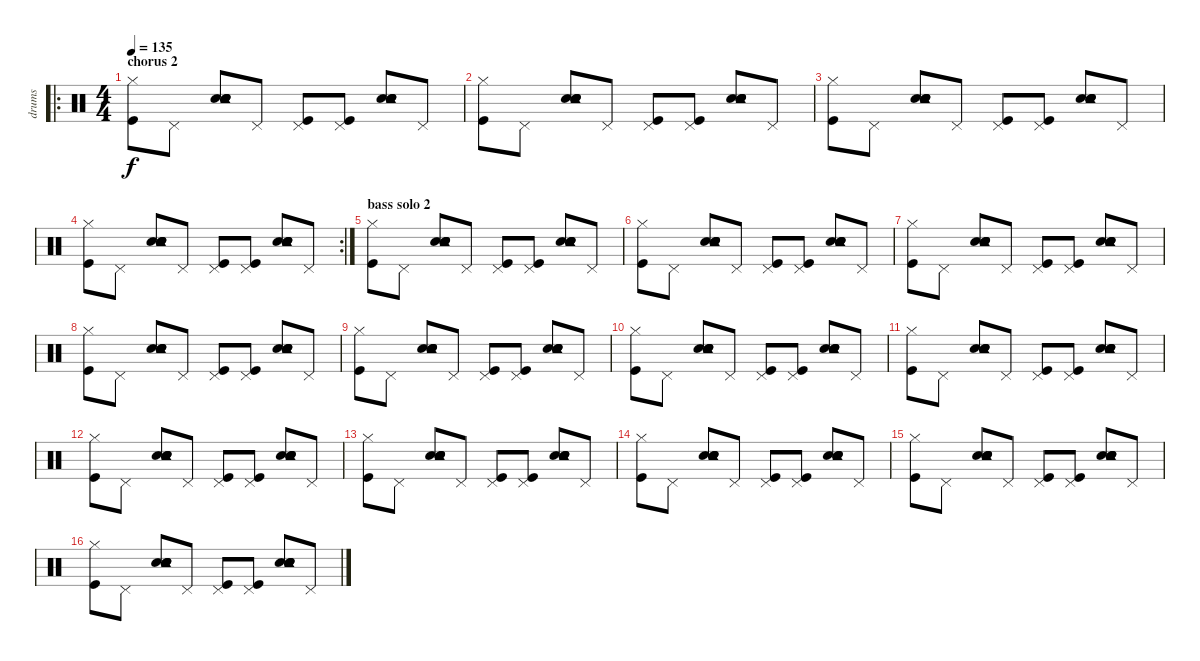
\track ("drums" "drums") {instrument percussion}
\staff {score}
\articulation defaults
\ro
\ts (4 4)
\section ("" "chorus 2")
\tempo 135
\clef neutral
\ks c
("Kick (hit)" "Hi-Hat (closed)").8{dy f} "Pedal Hi-Hat (hit)".8 ("Snare (hit) 2" "Snare (hit) 2" "Electric Snare (hit)" "Electric Snare (hit)" "Tambourine (hit)").8 "Pedal Hi-Hat (hit)".8 ("Kick (hit)" "Pedal Hi-Hat (hit)").8 ("Kick (hit)" "Pedal Hi-Hat (hit)").8 ("Snare (hit) 2" "Snare (hit) 2" "Electric Snare (hit)" "Electric Snare (hit)" "Tambourine (hit)").8 "Pedal Hi-Hat (hit)".8 |
("Kick (hit)" "Hi-Hat (closed)").8 "Pedal Hi-Hat (hit)".8 ("Snare (hit) 2" "Snare (hit) 2" "Electric Snare (hit)" "Electric Snare (hit)" "Tambourine (hit)").8 "Pedal Hi-Hat (hit)".8 ("Kick (hit)" "Pedal Hi-Hat (hit)").8 ("Kick (hit)" "Pedal Hi-Hat (hit)").8 ("Snare (hit) 2" "Snare (hit) 2" "Electric Snare (hit)" "Electric Snare (hit)" "Tambourine (hit)").8 "Pedal Hi-Hat (hit)".8 |
("Kick (hit)" "Hi-Hat (closed)").8 "Pedal Hi-Hat (hit)".8 ("Snare (hit) 2" "Snare (hit) 2" "Electric Snare (hit)" "Electric Snare (hit)" "Tambourine (hit)").8 "Pedal Hi-Hat (hit)".8 ("Kick (hit)" "Pedal Hi-Hat (hit)").8 ("Kick (hit)" "Pedal Hi-Hat (hit)").8 ("Snare (hit) 2" "Snare (hit) 2" "Electric Snare (hit)" "Electric Snare (hit)" "Tambourine (hit)").8 "Pedal Hi-Hat (hit)".8 |
\rc 2
("Kick (hit)" "Hi-Hat (closed)").8 "Pedal Hi-Hat (hit)".8 ("Snare (hit) 2" "Snare (hit) 2" "Electric Snare (hit)" "Electric Snare (hit)" "Tambourine (hit)").8 "Pedal Hi-Hat (hit)".8 ("Kick (hit)" "Pedal Hi-Hat (hit)").8 ("Kick (hit)" "Pedal Hi-Hat (hit)").8 ("Snare (hit) 2" "Snare (hit) 2" "Electric Snare (hit)" "Electric Snare (hit)" "Tambourine (hit)").8 "Pedal Hi-Hat (hit)".8 |
\section ("" "bass solo 2")
("Kick (hit)" "Hi-Hat (closed)").8 "Pedal Hi-Hat (hit)".8 ("Snare (hit) 2" "Snare (hit) 2" "Electric Snare (hit)" "Electric Snare (hit)" "Tambourine (hit)").8 "Pedal Hi-Hat (hit)".8 ("Kick (hit)" "Pedal Hi-Hat (hit)").8 ("Kick (hit)" "Pedal Hi-Hat (hit)").8 ("Snare (hit) 2" "Snare (hit) 2" "Electric Snare (hit)" "Electric Snare (hit)" "Tambourine (hit)").8 "Pedal Hi-Hat (hit)".8 |
("Kick (hit)" "Hi-Hat (closed)").8 "Pedal Hi-Hat (hit)".8 ("Snare (hit) 2" "Snare (hit) 2" "Electric Snare (hit)" "Electric Snare (hit)" "Tambourine (hit)").8 "Pedal Hi-Hat (hit)".8 ("Kick (hit)" "Pedal Hi-Hat (hit)").8 ("Kick (hit)" "Pedal Hi-Hat (hit)").8 ("Snare (hit) 2" "Snare (hit) 2" "Electric Snare (hit)" "Electric Snare (hit)" "Tambourine (hit)").8 "Pedal Hi-Hat (hit)".8 |
("Kick (hit)" "Hi-Hat (closed)").8 "Pedal Hi-Hat (hit)".8 ("Snare (hit) 2" "Snare (hit) 2" "Electric Snare (hit)" "Electric Snare (hit)" "Tambourine (hit)").8 "Pedal Hi-Hat (hit)".8 ("Kick (hit)" "Pedal Hi-Hat (hit)").8 ("Kick (hit)" "Pedal Hi-Hat (hit)").8 ("Snare (hit) 2" "Snare (hit) 2" "Electric Snare (hit)" "Electric Snare (hit)" "Tambourine (hit)").8 "Pedal Hi-Hat (hit)".8 |
("Kick (hit)" "Hi-Hat (closed)").8 "Pedal Hi-Hat (hit)".8 ("Snare (hit) 2" "Snare (hit) 2" "Electric Snare (hit)" "Electric Snare (hit)" "Tambourine (hit)").8 "Pedal Hi-Hat (hit)".8 ("Kick (hit)" "Pedal Hi-Hat (hit)").8 ("Kick (hit)" "Pedal Hi-Hat (hit)").8 ("Snare (hit) 2" "Snare (hit) 2" "Electric Snare (hit)" "Electric Snare (hit)" "Tambourine (hit)").8 "Pedal Hi-Hat (hit)".8 |
("Kick (hit)" "Hi-Hat (closed)").8 "Pedal Hi-Hat (hit)".8 ("Snare (hit) 2" "Snare (hit) 2" "Electric Snare (hit)" "Electric Snare (hit)" "Tambourine (hit)").8 "Pedal Hi-Hat (hit)".8 ("Kick (hit)" "Pedal Hi-Hat (hit)").8 ("Kick (hit)" "Pedal Hi-Hat (hit)").8 ("Snare (hit) 2" "Snare (hit) 2" "Electric Snare (hit)" "Electric Snare (hit)" "Tambourine (hit)").8 "Pedal Hi-Hat (hit)".8 |
("Kick (hit)" "Hi-Hat (closed)").8 "Pedal Hi-Hat (hit)".8 ("Snare (hit) 2" "Snare (hit) 2" "Electric Snare (hit)" "Electric Snare (hit)" "Tambourine (hit)").8 "Pedal Hi-Hat (hit)".8 ("Kick (hit)" "Pedal Hi-Hat (hit)").8 ("Kick (hit)" "Pedal Hi-Hat (hit)").8 ("Snare (hit) 2" "Snare (hit) 2" "Electric Snare (hit)" "Electric Snare (hit)" "Tambourine (hit)").8 "Pedal Hi-Hat (hit)".8 |
("Kick (hit)" "Hi-Hat (closed)").8 "Pedal Hi-Hat (hit)".8 ("Snare (hit) 2" "Snare (hit) 2" "Electric Snare (hit)" "Electric Snare (hit)" "Tambourine (hit)").8 "Pedal Hi-Hat (hit)".8 ("Kick (hit)" "Pedal Hi-Hat (hit)").8 ("Kick (hit)" "Pedal Hi-Hat (hit)").8 ("Snare (hit) 2" "Snare (hit) 2" "Electric Snare (hit)" "Electric Snare (hit)" "Tambourine (hit)").8 "Pedal Hi-Hat (hit)".8 |
("Kick (hit)" "Hi-Hat (closed)").8 "Pedal Hi-Hat (hit)".8 ("Snare (hit) 2" "Snare (hit) 2" "Electric Snare (hit)" "Electric Snare (hit)" "Tambourine (hit)").8 "Pedal Hi-Hat (hit)".8 ("Kick (hit)" "Pedal Hi-Hat (hit)").8 ("Kick (hit)" "Pedal Hi-Hat (hit)").8 ("Snare (hit) 2" "Snare (hit) 2" "Electric Snare (hit)" "Electric Snare (hit)" "Tambourine (hit)").8 "Pedal Hi-Hat (hit)".8 |
("Kick (hit)" "Hi-Hat (closed)").8 "Pedal Hi-Hat (hit)".8 ("Snare (hit) 2" "Snare (hit) 2" "Electric Snare (hit)" "Electric Snare (hit)" "Tambourine (hit)").8 "Pedal Hi-Hat (hit)".8 ("Kick (hit)" "Pedal Hi-Hat (hit)").8 ("Kick (hit)" "Pedal Hi-Hat (hit)").8 ("Snare (hit) 2" "Snare (hit) 2" "Electric Snare (hit)" "Electric Snare (hit)" "Tambourine (hit)").8 "Pedal Hi-Hat (hit)".8 |
("Kick (hit)" "Hi-Hat (closed)").8 "Pedal Hi-Hat (hit)".8 ("Snare (hit) 2" "Snare (hit) 2" "Electric Snare (hit)" "Electric Snare (hit)" "Tambourine (hit)").8 "Pedal Hi-Hat (hit)".8 ("Kick (hit)" "Pedal Hi-Hat (hit)").8 ("Kick (hit)" "Pedal Hi-Hat (hit)").8 ("Snare (hit) 2" "Snare (hit) 2" "Electric Snare (hit)" "Electric Snare (hit)" "Tambourine (hit)").8 "Pedal Hi-Hat (hit)".8 |
("Kick (hit)" "Hi-Hat (closed)").8 "Pedal Hi-Hat (hit)".8 ("Snare (hit) 2" "Snare (hit) 2" "Electric Snare (hit)" "Electric Snare (hit)" "Tambourine (hit)").8 "Pedal Hi-Hat (hit)".8 ("Kick (hit)" "Pedal Hi-Hat (hit)").8 ("Kick (hit)" "Pedal Hi-Hat (hit)").8 ("Snare (hit) 2" "Snare (hit) 2" "Electric Snare (hit)" "Electric Snare (hit)" "Tambourine (hit)").8 "Pedal Hi-Hat (hit)".8 |
("Kick (hit)" "Hi-Hat (closed)").8 "Pedal Hi-Hat (hit)".8 ("Snare (hit) 2" "Snare (hit) 2" "Electric Snare (hit)" "Electric Snare (hit)" "Tambourine (hit)").8 "Pedal Hi-Hat (hit)".8 ("Kick (hit)" "Pedal Hi-Hat (hit)").8 ("Kick (hit)" "Pedal Hi-Hat (hit)").8 ("Snare (hit) 2" "Snare (hit) 2" "Electric Snare (hit)" "Electric Snare (hit)" "Tambourine (hit)").8 "Pedal Hi-Hat (hit)".8
